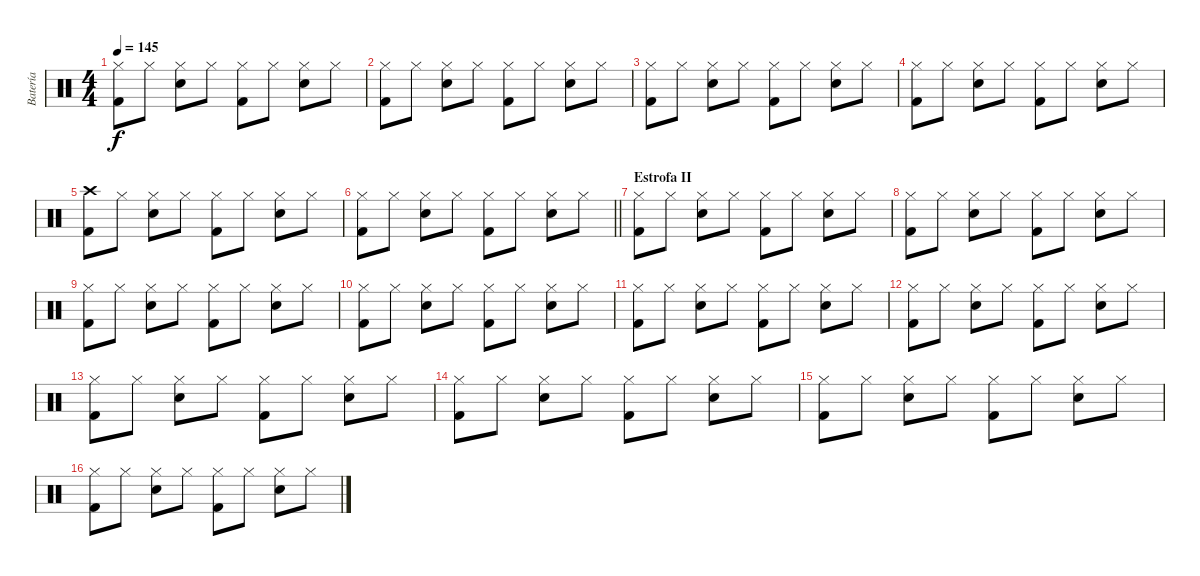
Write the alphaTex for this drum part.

\track ("Batería" "Batería") {instrument percussion}
\staff {score}
\articulation defaults
\ts (4 4)
\tempo 145
\clef neutral
\ks c
("Hi-Hat (closed)" "Kick (hit) 2").8{dy f} "Hi-Hat (closed)".8 ("Hi-Hat (closed)" "Snare (hit) 2").8 "Hi-Hat (closed)".8 ("Hi-Hat (closed)" "Kick (hit) 2").8 "Hi-Hat (closed)".8 ("Hi-Hat (closed)" "Snare (hit) 2").8 "Hi-Hat (closed)".8 |
("Hi-Hat (closed)" "Kick (hit) 2").8 "Hi-Hat (closed)".8 ("Hi-Hat (closed)" "Snare (hit) 2").8 "Hi-Hat (closed)".8 ("Hi-Hat (closed)" "Kick (hit) 2").8 "Hi-Hat (closed)".8 ("Hi-Hat (closed)" "Snare (hit) 2").8 "Hi-Hat (closed)".8 |
("Hi-Hat (closed)" "Kick (hit) 2").8 "Hi-Hat (closed)".8 ("Hi-Hat (closed)" "Snare (hit) 2").8 "Hi-Hat (closed)".8 ("Hi-Hat (closed)" "Kick (hit) 2").8 "Hi-Hat (closed)".8 ("Hi-Hat (closed)" "Snare (hit) 2").8 "Hi-Hat (closed)".8 |
("Hi-Hat (closed)" "Kick (hit) 2").8 "Hi-Hat (closed)".8 ("Hi-Hat (closed)" "Snare (hit) 2").8 "Hi-Hat (closed)".8 ("Hi-Hat (closed)" "Kick (hit) 2").8 "Hi-Hat (closed)".8 ("Hi-Hat (closed)" "Snare (hit) 2").8 "Hi-Hat (closed)".8 |
("Crash high (hit)" "Kick (hit) 2").8 "Hi-Hat (closed)".8 ("Hi-Hat (closed)" "Snare (hit) 2").8 "Hi-Hat (closed)".8 ("Hi-Hat (closed)" "Kick (hit) 2").8 "Hi-Hat (closed)".8 ("Hi-Hat (closed)" "Snare (hit) 2").8 "Hi-Hat (closed)".8 |
\barLineRight lightlight
("Hi-Hat (closed)" "Kick (hit) 2").8 "Hi-Hat (closed)".8 ("Hi-Hat (closed)" "Snare (hit) 2").8 "Hi-Hat (closed)".8 ("Hi-Hat (closed)" "Kick (hit) 2").8 "Hi-Hat (closed)".8 ("Hi-Hat (closed)" "Snare (hit) 2").8 "Hi-Hat (closed)".8 |
\section ("" "Estrofa II")
("Hi-Hat (closed)" "Kick (hit) 2").8 "Hi-Hat (closed)".8 ("Hi-Hat (closed)" "Snare (hit) 2").8 "Hi-Hat (closed)".8 ("Hi-Hat (closed)" "Kick (hit) 2").8 "Hi-Hat (closed)".8 ("Hi-Hat (closed)" "Snare (hit) 2").8 "Hi-Hat (closed)".8 |
("Hi-Hat (closed)" "Kick (hit) 2").8 "Hi-Hat (closed)".8 ("Hi-Hat (closed)" "Snare (hit) 2").8 "Hi-Hat (closed)".8 ("Hi-Hat (closed)" "Kick (hit) 2").8 "Hi-Hat (closed)".8 ("Hi-Hat (closed)" "Snare (hit) 2").8 "Hi-Hat (closed)".8 |
("Hi-Hat (closed)" "Kick (hit) 2").8 "Hi-Hat (closed)".8 ("Hi-Hat (closed)" "Snare (hit) 2").8 "Hi-Hat (closed)".8 ("Hi-Hat (closed)" "Kick (hit) 2").8 "Hi-Hat (closed)".8 ("Hi-Hat (closed)" "Snare (hit) 2").8 "Hi-Hat (closed)".8 |
("Hi-Hat (closed)" "Kick (hit) 2").8 "Hi-Hat (closed)".8 ("Hi-Hat (closed)" "Snare (hit) 2").8 "Hi-Hat (closed)".8 ("Hi-Hat (closed)" "Kick (hit) 2").8 "Hi-Hat (closed)".8 ("Hi-Hat (closed)" "Snare (hit) 2").8 "Hi-Hat (closed)".8 |
("Hi-Hat (closed)" "Kick (hit) 2").8 "Hi-Hat (closed)".8 ("Hi-Hat (closed)" "Snare (hit) 2").8 "Hi-Hat (closed)".8 ("Hi-Hat (closed)" "Kick (hit) 2").8 "Hi-Hat (closed)".8 ("Hi-Hat (closed)" "Snare (hit) 2").8 "Hi-Hat (closed)".8 |
("Hi-Hat (closed)" "Kick (hit) 2").8 "Hi-Hat (closed)".8 ("Hi-Hat (closed)" "Snare (hit) 2").8 "Hi-Hat (closed)".8 ("Hi-Hat (closed)" "Kick (hit) 2").8 "Hi-Hat (closed)".8 ("Hi-Hat (closed)" "Snare (hit) 2").8 "Hi-Hat (closed)".8 |
("Hi-Hat (closed)" "Kick (hit) 2").8 "Hi-Hat (closed)".8 ("Hi-Hat (closed)" "Snare (hit) 2").8 "Hi-Hat (closed)".8 ("Hi-Hat (closed)" "Kick (hit) 2").8 "Hi-Hat (closed)".8 ("Hi-Hat (closed)" "Snare (hit) 2").8 "Hi-Hat (closed)".8 |
("Hi-Hat (closed)" "Kick (hit) 2").8 "Hi-Hat (closed)".8 ("Hi-Hat (closed)" "Snare (hit) 2").8 "Hi-Hat (closed)".8 ("Hi-Hat (closed)" "Kick (hit) 2").8 "Hi-Hat (closed)".8 ("Hi-Hat (closed)" "Snare (hit) 2").8 "Hi-Hat (closed)".8 |
("Hi-Hat (closed)" "Kick (hit) 2").8 "Hi-Hat (closed)".8 ("Hi-Hat (closed)" "Snare (hit) 2").8 "Hi-Hat (closed)".8 ("Hi-Hat (closed)" "Kick (hit) 2").8 "Hi-Hat (closed)".8 ("Hi-Hat (closed)" "Snare (hit) 2").8 "Hi-Hat (closed)".8 |
("Hi-Hat (closed)" "Kick (hit) 2").8 "Hi-Hat (closed)".8 ("Hi-Hat (closed)" "Snare (hit) 2").8 "Hi-Hat (closed)".8 ("Hi-Hat (closed)" "Kick (hit) 2").8 "Hi-Hat (closed)".8 ("Hi-Hat (closed)" "Snare (hit) 2").8 "Hi-Hat (closed)".8
